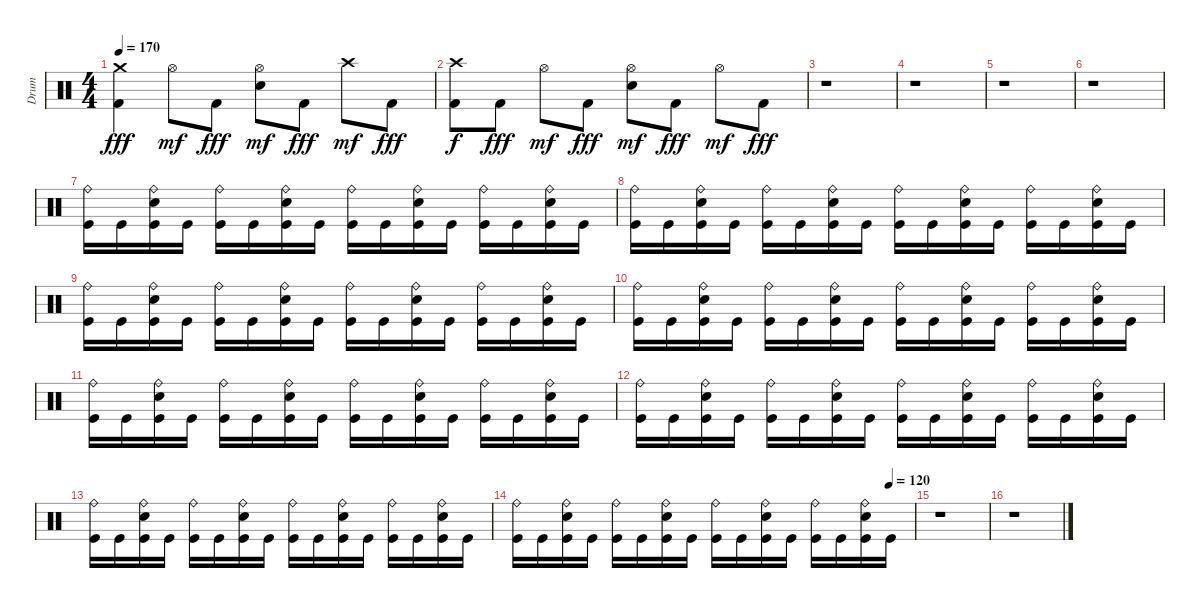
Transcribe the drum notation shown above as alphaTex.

\track ("Drum" "Drum") {instrument percussion}
\staff {score}
\articulation defaults
\ts (4 4)
\tempo 170
\clef neutral
\ks c
("Crash medium (hit)" "Kick (hit) 2").4{dy fff} "Hi-Hat (open)".8{dy mf} "Kick (hit) 2".8{dy fff} ("Hi-Hat (open)" "Snare (hit) 2").8{dy mf} "Kick (hit) 2".8{dy fff} "Crash high (hit)".8{dy mf} "Kick (hit) 2".8{dy fff} |
("Crash high (hit)" "Kick (hit) 2").8{dy f} "Kick (hit) 2".8{dy fff} "Hi-Hat (open)".8{dy mf} "Kick (hit) 2".8{dy fff} ("Hi-Hat (open)" "Snare (hit) 2").8{dy mf} "Kick (hit) 2".8{dy fff} "Hi-Hat (open)".8{dy mf} "Kick (hit) 2".8{dy fff} |
r.1 |
r.1 |
r.1 |
r.1 |
("Ride (bell)" "Kick (hit)").16 "Kick (hit)".16 ("Ride (bell)" "Snare (hit) 2" "Kick (hit)").16 "Kick (hit)".16 ("Ride (bell)" "Kick (hit)").16 "Kick (hit)".16 ("Ride (bell)" "Snare (hit) 2" "Kick (hit)").16 "Kick (hit)".16 ("Ride (bell)" "Kick (hit)").16 "Kick (hit)".16 ("Ride (bell)" "Snare (hit) 2" "Kick (hit)").16 "Kick (hit)".16 ("Ride (bell)" "Kick (hit)").16 "Kick (hit)".16 ("Ride (bell)" "Snare (hit) 2" "Kick (hit)").16 "Kick (hit)".16 |
("Ride (bell)" "Kick (hit)").16 "Kick (hit)".16 ("Ride (bell)" "Snare (hit) 2" "Kick (hit)").16 "Kick (hit)".16 ("Ride (bell)" "Kick (hit)").16 "Kick (hit)".16 ("Ride (bell)" "Snare (hit) 2" "Kick (hit)").16 "Kick (hit)".16 ("Ride (bell)" "Kick (hit)").16 "Kick (hit)".16 ("Ride (bell)" "Snare (hit) 2" "Kick (hit)").16 "Kick (hit)".16 ("Ride (bell)" "Kick (hit)").16 "Kick (hit)".16 ("Ride (bell)" "Snare (hit) 2" "Kick (hit)").16 "Kick (hit)".16 |
("Ride (bell)" "Kick (hit)").16 "Kick (hit)".16 ("Ride (bell)" "Snare (hit) 2" "Kick (hit)").16 "Kick (hit)".16 ("Ride (bell)" "Kick (hit)").16 "Kick (hit)".16 ("Ride (bell)" "Snare (hit) 2" "Kick (hit)").16 "Kick (hit)".16 ("Ride (bell)" "Kick (hit)").16 "Kick (hit)".16 ("Ride (bell)" "Snare (hit) 2" "Kick (hit)").16 "Kick (hit)".16 ("Ride (bell)" "Kick (hit)").16 "Kick (hit)".16 ("Ride (bell)" "Snare (hit) 2" "Kick (hit)").16 "Kick (hit)".16 |
("Ride (bell)" "Kick (hit)").16 "Kick (hit)".16 ("Ride (bell)" "Snare (hit) 2" "Kick (hit)").16 "Kick (hit)".16 ("Ride (bell)" "Kick (hit)").16 "Kick (hit)".16 ("Ride (bell)" "Snare (hit) 2" "Kick (hit)").16 "Kick (hit)".16 ("Ride (bell)" "Kick (hit)").16 "Kick (hit)".16 ("Ride (bell)" "Snare (hit) 2" "Kick (hit)").16 "Kick (hit)".16 ("Ride (bell)" "Kick (hit)").16 "Kick (hit)".16 ("Ride (bell)" "Snare (hit) 2" "Kick (hit)").16 "Kick (hit)".16 |
("Ride (bell)" "Kick (hit)").16 "Kick (hit)".16 ("Ride (bell)" "Snare (hit) 2" "Kick (hit)").16 "Kick (hit)".16 ("Ride (bell)" "Kick (hit)").16 "Kick (hit)".16 ("Ride (bell)" "Snare (hit) 2" "Kick (hit)").16 "Kick (hit)".16 ("Ride (bell)" "Kick (hit)").16 "Kick (hit)".16 ("Ride (bell)" "Snare (hit) 2" "Kick (hit)").16 "Kick (hit)".16 ("Ride (bell)" "Kick (hit)").16 "Kick (hit)".16 ("Ride (bell)" "Snare (hit) 2" "Kick (hit)").16 "Kick (hit)".16 |
("Ride (bell)" "Kick (hit)").16 "Kick (hit)".16 ("Ride (bell)" "Snare (hit) 2" "Kick (hit)").16 "Kick (hit)".16 ("Ride (bell)" "Kick (hit)").16 "Kick (hit)".16 ("Ride (bell)" "Snare (hit) 2" "Kick (hit)").16 "Kick (hit)".16 ("Ride (bell)" "Kick (hit)").16 "Kick (hit)".16 ("Ride (bell)" "Snare (hit) 2" "Kick (hit)").16 "Kick (hit)".16 ("Ride (bell)" "Kick (hit)").16 "Kick (hit)".16 ("Ride (bell)" "Snare (hit) 2" "Kick (hit)").16 "Kick (hit)".16 |
("Ride (bell)" "Kick (hit)").16 "Kick (hit)".16 ("Ride (bell)" "Snare (hit) 2" "Kick (hit)").16 "Kick (hit)".16 ("Ride (bell)" "Kick (hit)").16 "Kick (hit)".16 ("Ride (bell)" "Snare (hit) 2" "Kick (hit)").16 "Kick (hit)".16 ("Ride (bell)" "Kick (hit)").16 "Kick (hit)".16 ("Ride (bell)" "Snare (hit) 2" "Kick (hit)").16 "Kick (hit)".16 ("Ride (bell)" "Kick (hit)").16 "Kick (hit)".16 ("Ride (bell)" "Snare (hit) 2" "Kick (hit)").16 "Kick (hit)".16 |
\tempo (120 0.9375)
("Ride (bell)" "Kick (hit)").16 "Kick (hit)".16 ("Ride (bell)" "Snare (hit) 2" "Kick (hit)").16 "Kick (hit)".16 ("Ride (bell)" "Kick (hit)").16 "Kick (hit)".16 ("Ride (bell)" "Snare (hit) 2" "Kick (hit)").16 "Kick (hit)".16 ("Ride (bell)" "Kick (hit)").16 "Kick (hit)".16 ("Ride (bell)" "Snare (hit) 2" "Kick (hit)").16 "Kick (hit)".16 ("Ride (bell)" "Kick (hit)").16 "Kick (hit)".16 ("Ride (bell)" "Snare (hit) 2" "Kick (hit)").16 "Kick (hit)".16 |
r.1 |
r.1
